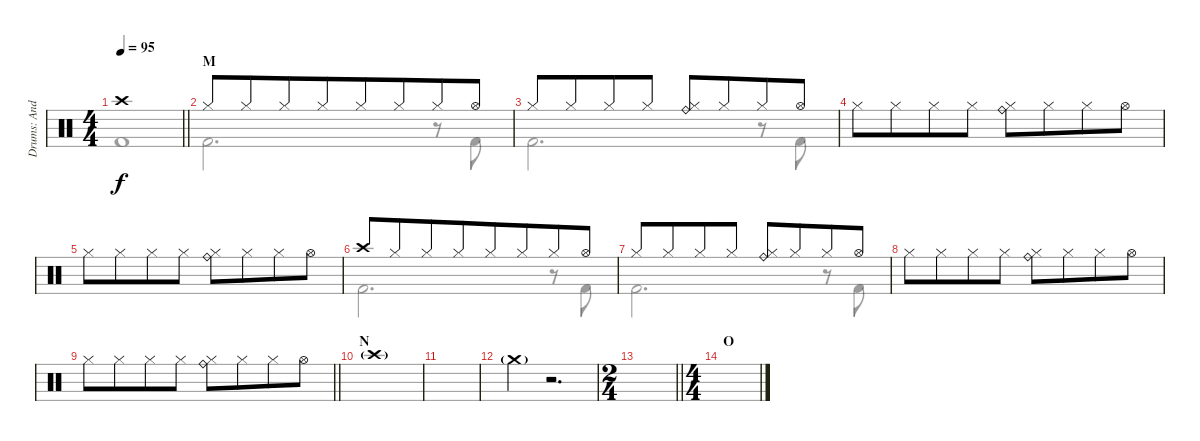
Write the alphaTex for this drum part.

\track ("Drums: Andy" "Drums: And") {instrument percussion}
\staff {score}
\articulation defaults
\voice
\ts (4 4)
\tempo 95
\clef neutral
\barLineRight lightlight
\ks c "Crash high (hit)".1{dy f}
|
\section ("" "M")
"Hi-Hat (closed)".8{beam merge} "Hi-Hat (closed)".8{beam merge} "Hi-Hat (closed)".8 "Hi-Hat (closed)".8{beam merge} "Hi-Hat (closed)".8 "Hi-Hat (closed)".8{beam merge} "Hi-Hat (closed)".8 "Hi-Hat (open)".8 |
"Hi-Hat (closed)".8 "Hi-Hat (closed)".8{beam merge} "Hi-Hat (closed)".8 "Hi-Hat (closed)".8 ("Ride (bell)" "Hi-Hat (closed)").8 "Hi-Hat (closed)".8{beam merge} "Hi-Hat (closed)".8 "Hi-Hat (open)".8 |
"Hi-Hat (closed)".8 "Hi-Hat (closed)".8{beam merge} "Hi-Hat (closed)".8 "Hi-Hat (closed)".8 ("Ride (bell)" "Hi-Hat (closed)").8 "Hi-Hat (closed)".8{beam merge} "Hi-Hat (closed)".8 "Hi-Hat (open)".8 |
"Hi-Hat (closed)".8 "Hi-Hat (closed)".8{beam merge} "Hi-Hat (closed)".8 "Hi-Hat (closed)".8 ("Ride (bell)" "Hi-Hat (closed)").8 "Hi-Hat (closed)".8{beam merge} "Hi-Hat (closed)".8 "Hi-Hat (open)".8 |
"Crash high (hit)".8{beam merge} "Hi-Hat (closed)".8{beam merge} "Hi-Hat (closed)".8 "Hi-Hat (closed)".8{beam merge} "Hi-Hat (closed)".8 "Hi-Hat (closed)".8{beam merge} "Hi-Hat (closed)".8 "Hi-Hat (open)".8 |
"Hi-Hat (closed)".8 "Hi-Hat (closed)".8{beam merge} "Hi-Hat (closed)".8 "Hi-Hat (closed)".8 ("Ride (bell)" "Hi-Hat (closed)").8 "Hi-Hat (closed)".8{beam merge} "Hi-Hat (closed)".8 "Hi-Hat (open)".8 |
"Hi-Hat (closed)".8 "Hi-Hat (closed)".8{beam merge} "Hi-Hat (closed)".8 "Hi-Hat (closed)".8 ("Ride (bell)" "Hi-Hat (closed)").8 "Hi-Hat (closed)".8{beam merge} "Hi-Hat (closed)".8 "Hi-Hat (open)".8 |
\barLineRight lightlight "Hi-Hat (closed)".8 "Hi-Hat (closed)".8{beam merge} "Hi-Hat (closed)".8 "Hi-Hat (closed)".8
("Ride (bell)" "Hi-Hat (closed)").8 "Hi-Hat (closed)".8{beam merge} "Hi-Hat (closed)".8 "Hi-Hat (open)".8 |
\section ("" "N")
"Crash high (hit)"{g}.1 |
|
"Crash medium (hit)"{g}.4 r.2{d} |
\ts (2 4)
\barLineRight lightlight
|
\ts (4 4)
\section ("" "O")
|
|
\voice
\clef neutral
\ottava regular
\simile none
\barLineRight lightlight
\ks c "Kick (hit) 2".1{dy f}
|
"Kick (hit) 2".2{d} r.8 "Kick (hit) 2".8 |
"Kick (hit) 2".2{d} r.8 "Kick (hit) 2".8 |
|
|
"Kick (hit) 2".2{d} r.8 "Kick (hit) 2".8 |
"Kick (hit) 2".2{d} r.8 "Kick (hit) 2".8 |
|
\barLineRight lightlight
|
|
|
|
\barLineRight lightlight
|
|
|
